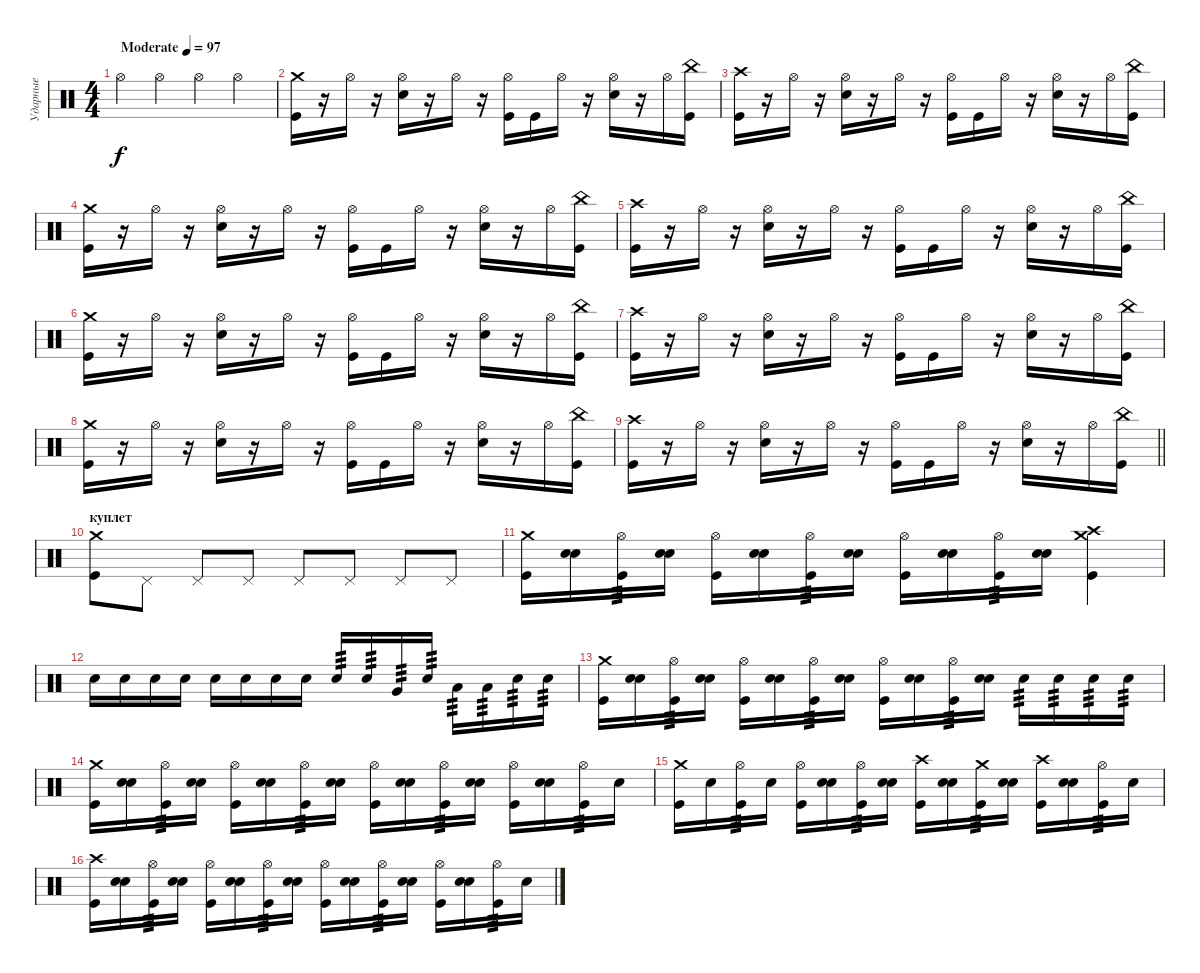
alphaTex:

\track ("Ударные" "Ударные") {instrument percussion}
\staff {score}
\articulation defaults
\ts (4 4)
\tempo (97 "Moderate")
\clef neutral
\ks c "Hi-Hat (open)".4{dy f} "Hi-Hat (open)".4 "Hi-Hat (open)".4 "Hi-Hat (open)".4
|
("Kick (hit)" "Crash medium (hit)").16 r.16 "Hi-Hat (open)".16 r.16 ("Electric Snare (hit)" "Hi-Hat (open)").16 r.16 "Hi-Hat (open)".16 r.16 ("Kick (hit)" "Hi-Hat (open)").16 "Kick (hit)".16 "Hi-Hat (open)".16 r.16 ("Electric Snare (hit)" "Hi-Hat (open)").16 r.16 "Hi-Hat (open)".16 ("Kick (hit)" "China (hit)").16 |
("Kick (hit)" "Crash high (hit)").16 r.16 "Hi-Hat (open)".16 r.16 ("Electric Snare (hit)" "Hi-Hat (open)").16 r.16 "Hi-Hat (open)".16 r.16 ("Kick (hit)" "Hi-Hat (open)").16 "Kick (hit)".16 "Hi-Hat (open)".16 r.16 ("Electric Snare (hit)" "Hi-Hat (open)").16 r.16 "Hi-Hat (open)".16 ("Kick (hit)" "China (hit)").16 |
("Kick (hit)" "Crash medium (hit)").16 r.16 "Hi-Hat (open)".16 r.16 ("Electric Snare (hit)" "Hi-Hat (open)").16 r.16 "Hi-Hat (open)".16 r.16 ("Kick (hit)" "Hi-Hat (open)").16 "Kick (hit)".16 "Hi-Hat (open)".16 r.16 ("Electric Snare (hit)" "Hi-Hat (open)").16 r.16 "Hi-Hat (open)".16 ("Kick (hit)" "China (hit)").16 |
("Kick (hit)" "Crash high (hit)").16 r.16 "Hi-Hat (open)".16 r.16 ("Electric Snare (hit)" "Hi-Hat (open)").16 r.16 "Hi-Hat (open)".16 r.16 ("Kick (hit)" "Hi-Hat (open)").16 "Kick (hit)".16 "Hi-Hat (open)".16 r.16 ("Electric Snare (hit)" "Hi-Hat (open)").16 r.16 "Hi-Hat (open)".16 ("Kick (hit)" "China (hit)").16 |
("Kick (hit)" "Crash medium (hit)").16 r.16 "Hi-Hat (open)".16 r.16 ("Electric Snare (hit)" "Hi-Hat (open)").16 r.16 "Hi-Hat (open)".16 r.16 ("Kick (hit)" "Hi-Hat (open)").16 "Kick (hit)".16 "Hi-Hat (open)".16 r.16 ("Electric Snare (hit)" "Hi-Hat (open)").16 r.16 "Hi-Hat (open)".16 ("Kick (hit)" "China (hit)").16 |
("Kick (hit)" "Crash high (hit)").16 r.16 "Hi-Hat (open)".16 r.16 ("Electric Snare (hit)" "Hi-Hat (open)").16 r.16 "Hi-Hat (open)".16 r.16 ("Kick (hit)" "Hi-Hat (open)").16 "Kick (hit)".16 "Hi-Hat (open)".16 r.16 ("Electric Snare (hit)" "Hi-Hat (open)").16 r.16 "Hi-Hat (open)".16 ("Kick (hit)" "China (hit)").16 |
("Kick (hit)" "Crash medium (hit)").16 r.16 "Hi-Hat (open)".16 r.16 ("Electric Snare (hit)" "Hi-Hat (open)").16 r.16 "Hi-Hat (open)".16 r.16 ("Kick (hit)" "Hi-Hat (open)").16 "Kick (hit)".16 "Hi-Hat (open)".16 r.16 ("Electric Snare (hit)" "Hi-Hat (open)").16 r.16 "Hi-Hat (open)".16 ("Kick (hit)" "China (hit)").16 |
\barLineRight lightlight
("Kick (hit)" "Crash high (hit)").16 r.16 "Hi-Hat (open)".16 r.16 ("Electric Snare (hit)" "Hi-Hat (open)").16 r.16 "Hi-Hat (open)".16 r.16 ("Kick (hit)" "Hi-Hat (open)").16 "Kick (hit)".16 "Hi-Hat (open)".16 r.16 ("Electric Snare (hit)" "Hi-Hat (open)").16 r.16 "Hi-Hat (open)".16 ("Kick (hit)" "China (hit)").16 |
\section ("" "куплет")
("Kick (hit)" "Crash medium (hit)").8 "Pedal Hi-Hat (hit)".8 "Pedal Hi-Hat (hit)".8 "Pedal Hi-Hat (hit)".8 "Pedal Hi-Hat (hit)".8 "Pedal Hi-Hat (hit)".8 "Pedal Hi-Hat (hit)".8 "Pedal Hi-Hat (hit)".8 |
("Kick (hit)" "Crash medium (hit)").16 ("Electric Snare (hit)" "Snare (hit)").16 ("Kick (hit)" "Hi-Hat (open)").16{tp 3} ("Electric Snare (hit)" "Snare (hit)").16 ("Kick (hit)" "Hi-Hat (open)").16 ("Electric Snare (hit)" "Snare (hit)").16 ("Kick (hit)" "Hi-Hat (open)").16{tp 3} ("Electric Snare (hit)" "Snare (hit)").16 ("Kick (hit)" "Hi-Hat (open)").16 ("Electric Snare (hit)" "Snare (hit)").16 ("Kick (hit)" "Hi-Hat (open)").16{tp 3} ("Electric Snare (hit)" "Snare (hit)").16 ("Kick (hit)" "Crash medium (hit)" "Crash high (hit)").4 |
"Snare (hit)".16 "Snare (hit)".16 "Snare (hit)".16 "Snare (hit)".16 "Snare (hit)".16 "Snare (hit)".16 "Snare (hit)".16 "Snare (hit)".16 "Electric Snare (hit)".16{tp 3} "Electric Snare (hit)".16{tp 3} "Very Low Tom (hit)".16{tp 3} "Electric Snare (hit)".16{tp 3} "Low Tom (hit)".16{tp 3} "Low Tom (hit)".16{tp 3} "Electric Snare (hit)".16{tp 3} "Electric Snare (hit)".16{tp 3} |
("Kick (hit)" "Crash medium (hit)").16 ("Electric Snare (hit)" "Snare (hit)").16 ("Kick (hit)" "Hi-Hat (open)").16{tp 3} ("Electric Snare (hit)" "Snare (hit)").16 ("Kick (hit)" "Hi-Hat (open)").16 ("Electric Snare (hit)" "Snare (hit)").16 ("Kick (hit)" "Hi-Hat (open)").16{tp 3} ("Electric Snare (hit)" "Snare (hit)").16 ("Kick (hit)" "Hi-Hat (open)").16 ("Electric Snare (hit)" "Snare (hit)").16 ("Kick (hit)" "Hi-Hat (open)").16{tp 3} ("Electric Snare (hit)" "Snare (hit)").16 "Electric Snare (hit)".16{tp 3} "Electric Snare (hit)".16{tp 3} "Electric Snare (hit)".16{tp 3} "Electric Snare (hit)".16{tp 3} |
("Kick (hit)" "Crash medium (hit)").16 ("Electric Snare (hit)" "Snare (hit)").16 ("Kick (hit)" "Hi-Hat (open)").16{tp 3} ("Electric Snare (hit)" "Snare (hit)").16 ("Kick (hit)" "Hi-Hat (open)").16 ("Electric Snare (hit)" "Snare (hit)").16 ("Kick (hit)" "Hi-Hat (open)").16{tp 3} ("Electric Snare (hit)" "Snare (hit)").16 ("Kick (hit)" "Hi-Hat (open)").16 ("Electric Snare (hit)" "Snare (hit)").16 ("Kick (hit)" "Hi-Hat (open)").16{tp 3} ("Electric Snare (hit)" "Snare (hit)").16 ("Kick (hit)" "Hi-Hat (open)").16 ("Electric Snare (hit)" "Snare (hit)").16 ("Kick (hit)" "Hi-Hat (open)").16{tp 3} "Electric Snare (hit)".16 |
("Kick (hit)" "Crash medium (hit)").16 "Electric Snare (hit)".16 ("Kick (hit)" "Hi-Hat (open)").16{tp 3} "Electric Snare (hit)".16 ("Kick (hit)" "Hi-Hat (open)").16 ("Electric Snare (hit)" "Snare (hit)").16 ("Kick (hit)" "Hi-Hat (open)").16{tp 3} ("Electric Snare (hit)" "Snare (hit)").16 ("Kick (hit)" "Crash high (hit)").16 ("Electric Snare (hit)" "Snare (hit)").16 ("Kick (hit)" "Crash medium (hit)").16{tp 3} ("Electric Snare (hit)" "Snare (hit)").16 ("Kick (hit)" "Crash high (hit)").16 ("Electric Snare (hit)" "Snare (hit)").16 ("Kick (hit)" "Hi-Hat (open)").16{tp 3} "Electric Snare (hit)".16 |
("Kick (hit)" "Crash high (hit)").16 ("Electric Snare (hit)" "Snare (hit)").16 ("Kick (hit)" "Hi-Hat (open)").16{tp 3} ("Electric Snare (hit)" "Snare (hit)").16 ("Kick (hit)" "Hi-Hat (open)").16 ("Electric Snare (hit)" "Snare (hit)").16 ("Kick (hit)" "Hi-Hat (open)").16{tp 3} ("Electric Snare (hit)" "Snare (hit)").16 ("Kick (hit)" "Hi-Hat (open)").16 ("Electric Snare (hit)" "Snare (hit)").16 ("Kick (hit)" "Hi-Hat (open)").16{tp 3} ("Electric Snare (hit)" "Snare (hit)").16 ("Kick (hit)" "Hi-Hat (open)").16 ("Electric Snare (hit)" "Snare (hit)").16 ("Kick (hit)" "Hi-Hat (open)").16{tp 3} "Electric Snare (hit)".16
